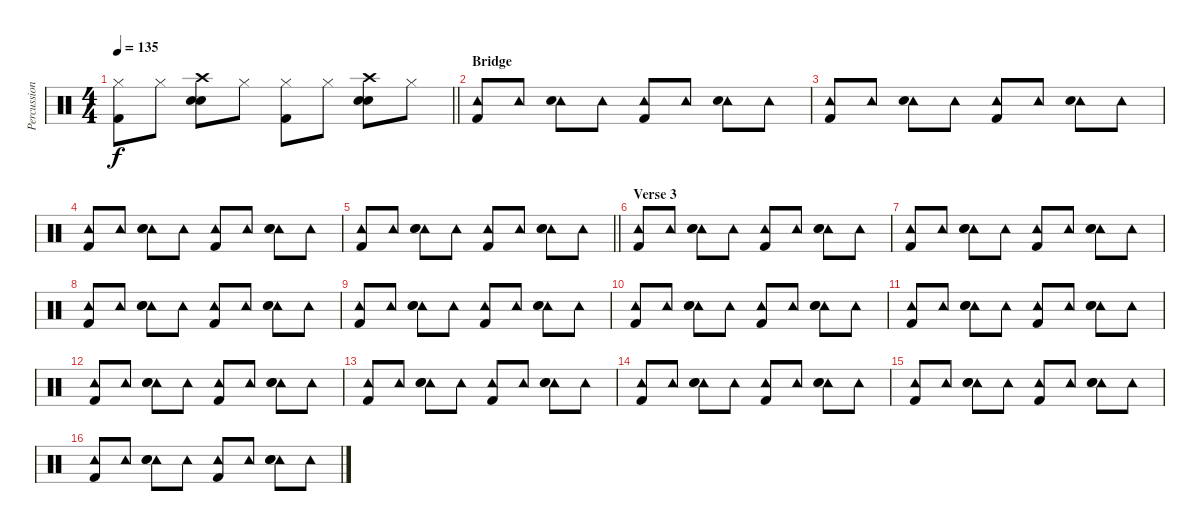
\track ("Percussion" "Percussion") {instrument percussion}
\staff {score}
\articulation defaults
\ts (4 4)
\tempo 135
\clef neutral
\barLineRight lightlight
\ks c
("Hi-Hat (closed)" "Kick (hit) 2").8{dy f} "Hi-Hat (closed)".8 ("Crash high (hit)" "Snare (hit) 2" "Hand Clap (hit)").8 "Hi-Hat (closed)".8 ("Hi-Hat (closed)" "Kick (hit) 2").8 "Hi-Hat (closed)".8 ("Crash high (hit)" "Snare (hit) 2" "Hand Clap (hit)").8 "Hi-Hat (closed)".8 |
\section ("" "Bridge")
("Tambourine (hit)" "Kick (hit) 2").8 "Tambourine (hit)".8 ("Tambourine (hit)" "Snare (hit) 2").8 "Tambourine (hit)".8 ("Tambourine (hit)" "Kick (hit) 2").8 "Tambourine (hit)".8 ("Tambourine (hit)" "Snare (hit) 2").8 "Tambourine (hit)".8 |
("Tambourine (hit)" "Kick (hit) 2").8 "Tambourine (hit)".8 ("Tambourine (hit)" "Snare (hit) 2").8 "Tambourine (hit)".8 ("Tambourine (hit)" "Kick (hit) 2").8 "Tambourine (hit)".8 ("Tambourine (hit)" "Snare (hit) 2").8 "Tambourine (hit)".8 |
("Tambourine (hit)" "Kick (hit) 2").8 "Tambourine (hit)".8 ("Tambourine (hit)" "Snare (hit) 2" "Hand Clap (hit)").8 "Tambourine (hit)".8 ("Tambourine (hit)" "Kick (hit) 2").8 "Tambourine (hit)".8 ("Tambourine (hit)" "Snare (hit) 2" "Hand Clap (hit)").8 "Tambourine (hit)".8 |
\barLineRight lightlight
("Tambourine (hit)" "Kick (hit) 2").8 "Tambourine (hit)".8 ("Tambourine (hit)" "Snare (hit) 2" "Hand Clap (hit)").8 "Tambourine (hit)".8 ("Tambourine (hit)" "Kick (hit) 2").8 "Tambourine (hit)".8 ("Tambourine (hit)" "Snare (hit) 2" "Hand Clap (hit)").8 "Tambourine (hit)".8 |
\section ("" "Verse 3")
("Tambourine (hit)" "Kick (hit) 2").8 "Tambourine (hit)".8 ("Tambourine (hit)" "Snare (hit) 2" "Hand Clap (hit)").8 "Tambourine (hit)".8 ("Tambourine (hit)" "Kick (hit) 2").8 "Tambourine (hit)".8 ("Tambourine (hit)" "Snare (hit) 2" "Hand Clap (hit)").8 "Tambourine (hit)".8 |
("Tambourine (hit)" "Kick (hit) 2").8 "Tambourine (hit)".8 ("Tambourine (hit)" "Snare (hit) 2" "Hand Clap (hit)").8 "Tambourine (hit)".8 ("Tambourine (hit)" "Kick (hit) 2").8 "Tambourine (hit)".8 ("Tambourine (hit)" "Snare (hit) 2" "Hand Clap (hit)").8 "Tambourine (hit)".8 |
("Tambourine (hit)" "Kick (hit) 2").8 "Tambourine (hit)".8 ("Tambourine (hit)" "Snare (hit) 2" "Hand Clap (hit)").8 "Tambourine (hit)".8 ("Tambourine (hit)" "Kick (hit) 2").8 "Tambourine (hit)".8 ("Tambourine (hit)" "Snare (hit) 2" "Hand Clap (hit)").8 "Tambourine (hit)".8 |
("Tambourine (hit)" "Kick (hit) 2").8 "Tambourine (hit)".8 ("Tambourine (hit)" "Snare (hit) 2" "Hand Clap (hit)").8 "Tambourine (hit)".8 ("Tambourine (hit)" "Kick (hit) 2").8 "Tambourine (hit)".8 ("Tambourine (hit)" "Snare (hit) 2" "Hand Clap (hit)").8 "Tambourine (hit)".8 |
("Tambourine (hit)" "Kick (hit) 2").8 "Tambourine (hit)".8 ("Tambourine (hit)" "Snare (hit) 2" "Hand Clap (hit)").8 "Tambourine (hit)".8 ("Tambourine (hit)" "Kick (hit) 2").8 "Tambourine (hit)".8 ("Tambourine (hit)" "Snare (hit) 2" "Hand Clap (hit)").8 "Tambourine (hit)".8 |
("Tambourine (hit)" "Kick (hit) 2").8 "Tambourine (hit)".8 ("Tambourine (hit)" "Snare (hit) 2" "Hand Clap (hit)").8 "Tambourine (hit)".8 ("Tambourine (hit)" "Kick (hit) 2").8 "Tambourine (hit)".8 ("Tambourine (hit)" "Snare (hit) 2" "Hand Clap (hit)").8 "Tambourine (hit)".8 |
("Tambourine (hit)" "Kick (hit) 2").8 "Tambourine (hit)".8 ("Tambourine (hit)" "Snare (hit) 2" "Hand Clap (hit)").8 "Tambourine (hit)".8 ("Tambourine (hit)" "Kick (hit) 2").8 "Tambourine (hit)".8 ("Tambourine (hit)" "Snare (hit) 2" "Hand Clap (hit)").8 "Tambourine (hit)".8 |
("Tambourine (hit)" "Kick (hit) 2").8 "Tambourine (hit)".8 ("Tambourine (hit)" "Snare (hit) 2" "Hand Clap (hit)").8 "Tambourine (hit)".8 ("Tambourine (hit)" "Kick (hit) 2").8 "Tambourine (hit)".8 ("Tambourine (hit)" "Snare (hit) 2" "Hand Clap (hit)").8 "Tambourine (hit)".8 |
("Tambourine (hit)" "Kick (hit) 2").8 "Tambourine (hit)".8 ("Tambourine (hit)" "Snare (hit) 2" "Hand Clap (hit)").8 "Tambourine (hit)".8 ("Tambourine (hit)" "Kick (hit) 2").8 "Tambourine (hit)".8 ("Tambourine (hit)" "Snare (hit) 2" "Hand Clap (hit)").8 "Tambourine (hit)".8 |
("Tambourine (hit)" "Kick (hit) 2").8 "Tambourine (hit)".8 ("Tambourine (hit)" "Snare (hit) 2" "Hand Clap (hit)").8 "Tambourine (hit)".8 ("Tambourine (hit)" "Kick (hit) 2").8 "Tambourine (hit)".8 ("Tambourine (hit)" "Snare (hit) 2" "Hand Clap (hit)").8 "Tambourine (hit)".8 |
("Tambourine (hit)" "Kick (hit) 2").8 "Tambourine (hit)".8 ("Tambourine (hit)" "Snare (hit) 2" "Hand Clap (hit)").8 "Tambourine (hit)".8 ("Tambourine (hit)" "Kick (hit) 2").8 "Tambourine (hit)".8 ("Tambourine (hit)" "Snare (hit) 2" "Hand Clap (hit)").8 "Tambourine (hit)".8
